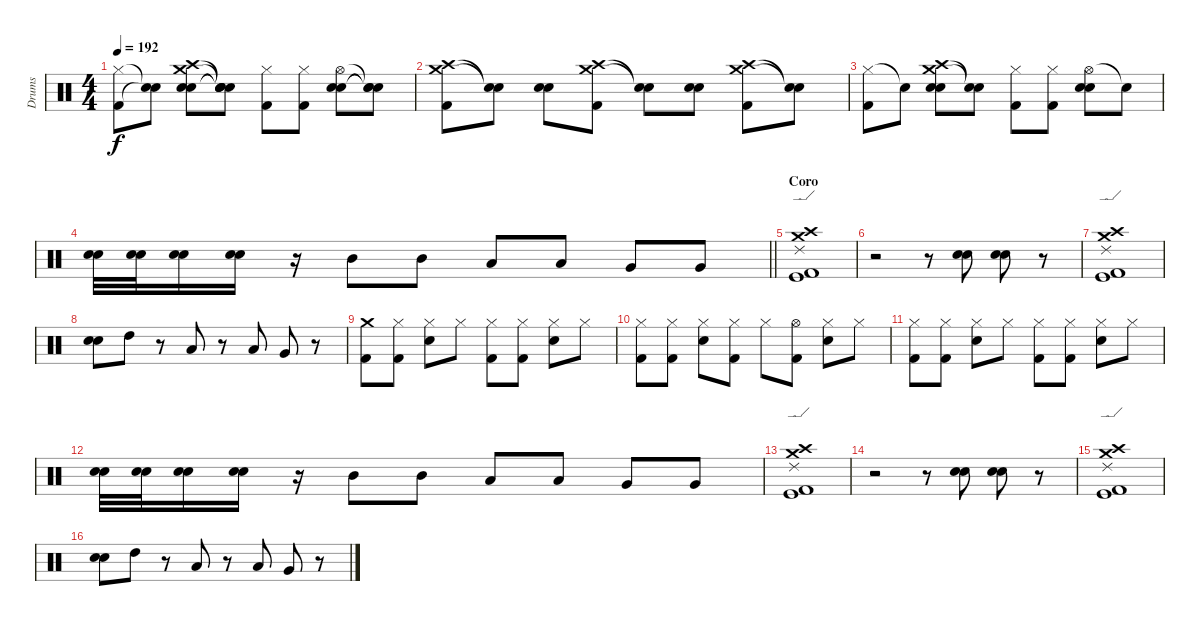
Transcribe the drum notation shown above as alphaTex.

\track ("Drums" "Drums") {instrument percussion}
\staff {score}
\articulation defaults
\ts (4 4)
\tempo 192
\clef neutral
\ks c
("Hi-Hat (closed)" "Kick (hit) 2").8{dy f} ("Snare (hit)"{t} "Snare (hit)"{t}).8 ("Crash medium (hit)" "Crash high (hit)" "Snare (hit) 2" "Electric Snare (hit)").8 ("Snare (hit)"{t} "Snare (hit)"{t} "Snare (hit)"{t} "Snare (hit)"{t}).8 ("Hi-Hat (closed)" "Kick (hit) 2").8 ("Hi-Hat (closed)" "Kick (hit) 2").8 ("Hi-Hat (open)" "Snare (hit) 2" "Electric Snare (hit)").8 ("Snare (hit)"{t} "Snare (hit)"{t} "Snare (hit)"{t}).8 |
("Crash medium (hit)" "Crash high (hit)" "Kick (hit) 2").8 ("Snare (hit)"{t} "Snare (hit)"{t}).8 ("Snare (hit) 2" "Electric Snare (hit)").8 ("Crash medium (hit)" "Crash high (hit)" "Kick (hit) 2").8 ("Snare (hit)"{t} "Snare (hit)"{t}).8 ("Snare (hit) 2" "Electric Snare (hit)").8 ("Crash medium (hit)" "Crash high (hit)" "Kick (hit) 2").8 ("Snare (hit)"{t} "Snare (hit)"{t}).8 |
("Hi-Hat (closed)" "Kick (hit) 2").8 "Snare (hit)"{t}.8 ("Crash medium (hit)" "Crash high (hit)" "Snare (hit) 2" "Electric Snare (hit)").8 ("Snare (hit)"{t} "Snare (hit)"{t}).8 ("Hi-Hat (closed)" "Kick (hit) 2").8 ("Hi-Hat (closed)" "Kick (hit) 2").8 ("Hi-Hat (open)" "Snare (hit) 2" "Electric Snare (hit)").8 "Snare (hit)"{t}.8 |
\barLineRight lightlight
("Snare (hit) 2" "Electric Snare (hit)").32 ("Snare (hit) 2" "Electric Snare (hit)").32 ("Snare (hit) 2" "Electric Snare (hit)").16 ("Snare (hit) 2" "Electric Snare (hit)").16 r.16 "Mid Tom (hit)".8 "Mid Tom (hit)".8 "Low Tom (hit)".8 "Low Tom (hit)".8 "Very Low Tom (hit)".8 "Very Low Tom (hit)".8 |
\section ("" "Coro")
("Crash medium (hit)" "Ride (edge) 2" "Crash high (hit)" "Kick (hit)" "Kick (hit) 2").1 |
r.2 r.8 ("Electric Snare (hit)" "Snare (hit) 2").8 ("Electric Snare (hit)" "Snare (hit) 2").8 r.8 |
("Crash medium (hit)" "Ride (edge) 2" "Crash high (hit)" "Kick (hit)" "Kick (hit) 2").1 |
("Snare (hit) 2" "Electric Snare (hit)").8 "High Tom (hit)".8 r.8 "Low Tom (hit)".8 r.8 "Low Tom (hit)".8 "Very Low Tom (hit)".8 r.8 |
("Crash medium (hit)" "Kick (hit) 2").8 ("Hi-Hat (closed)" "Kick (hit) 2").8 ("Hi-Hat (closed)" "Snare (hit) 2").8 "Hi-Hat (closed)".8 ("Hi-Hat (closed)" "Kick (hit) 2").8 ("Hi-Hat (closed)" "Kick (hit) 2").8 ("Hi-Hat (closed)" "Snare (hit) 2").8 "Hi-Hat (closed)".8 |
("Hi-Hat (closed)" "Kick (hit) 2").8 ("Hi-Hat (closed)" "Kick (hit) 2").8 ("Hi-Hat (closed)" "Snare (hit) 2").8 ("Hi-Hat (closed)" "Kick (hit) 2").8 "Hi-Hat (closed)".8 ("Hi-Hat (open)" "Kick (hit) 2").8 ("Hi-Hat (closed)" "Snare (hit) 2").8 "Hi-Hat (closed)".8 |
("Hi-Hat (closed)" "Kick (hit) 2").8 ("Hi-Hat (closed)" "Kick (hit) 2").8 ("Hi-Hat (closed)" "Snare (hit) 2").8 "Hi-Hat (closed)".8 ("Hi-Hat (closed)" "Kick (hit) 2").8 ("Hi-Hat (closed)" "Kick (hit) 2").8 ("Hi-Hat (closed)" "Snare (hit) 2").8 "Hi-Hat (closed)".8 |
("Snare (hit) 2" "Electric Snare (hit)").32 ("Snare (hit) 2" "Electric Snare (hit)").32 ("Snare (hit) 2" "Electric Snare (hit)").16 ("Snare (hit) 2" "Electric Snare (hit)").16 r.16 "Mid Tom (hit)".8 "Mid Tom (hit)".8 "Low Tom (hit)".8 "Low Tom (hit)".8 "Very Low Tom (hit)".8 "Very Low Tom (hit)".8 |
("Crash medium (hit)" "Ride (edge) 2" "Crash high (hit)" "Kick (hit)" "Kick (hit) 2").1 |
r.2 r.8 ("Electric Snare (hit)" "Snare (hit) 2").8 ("Electric Snare (hit)" "Snare (hit) 2").8 r.8 |
("Crash medium (hit)" "Ride (edge) 2" "Crash high (hit)" "Kick (hit)" "Kick (hit) 2").1 |
("Snare (hit) 2" "Electric Snare (hit)").8 "High Tom (hit)".8 r.8 "Low Tom (hit)".8 r.8 "Low Tom (hit)".8 "Very Low Tom (hit)".8 r.8
